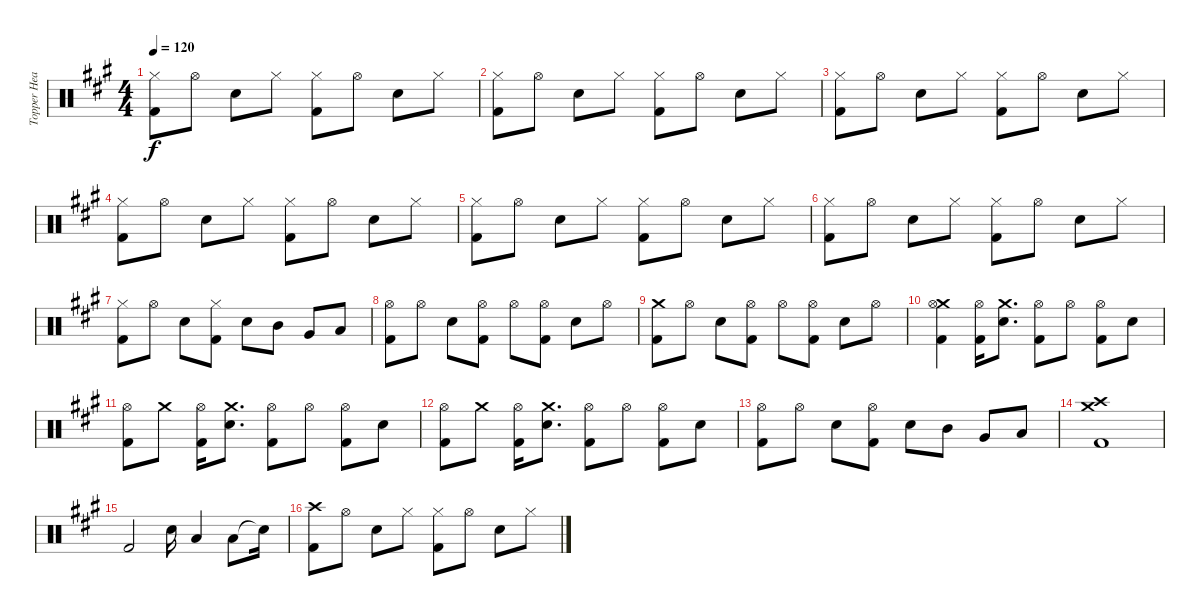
\track ("Topper Headon - Drums" "Topper Hea") {instrument percussion}
\staff {score}
\articulation defaults
\ts (4 4)
\tempo 120
\clef neutral
\ks a
("Hi-Hat (closed)" "Kick (hit) 2").8{dy f} "Hi-Hat (open)".8 "Electric Snare (hit)".8 "Hi-Hat (closed)".8 ("Hi-Hat (closed)" "Kick (hit) 2").8 "Hi-Hat (open)".8 "Electric Snare (hit)".8 "Hi-Hat (closed)".8 |
("Hi-Hat (closed)" "Kick (hit) 2").8 "Hi-Hat (open)".8 "Electric Snare (hit)".8 "Hi-Hat (closed)".8 ("Hi-Hat (closed)" "Kick (hit) 2").8 "Hi-Hat (open)".8 "Electric Snare (hit)".8 "Hi-Hat (closed)".8 |
("Hi-Hat (closed)" "Kick (hit) 2").8 "Hi-Hat (open)".8 "Electric Snare (hit)".8 "Hi-Hat (closed)".8 ("Hi-Hat (closed)" "Kick (hit) 2").8 "Hi-Hat (open)".8 "Electric Snare (hit)".8 "Hi-Hat (closed)".8 |
("Hi-Hat (closed)" "Kick (hit) 2").8 "Hi-Hat (open)".8 "Electric Snare (hit)".8 "Hi-Hat (closed)".8 ("Hi-Hat (closed)" "Kick (hit) 2").8 "Hi-Hat (open)".8 "Electric Snare (hit)".8 "Hi-Hat (closed)".8 |
("Hi-Hat (closed)" "Kick (hit) 2").8 "Hi-Hat (open)".8 "Electric Snare (hit)".8 "Hi-Hat (closed)".8 ("Hi-Hat (closed)" "Kick (hit) 2").8 "Hi-Hat (open)".8 "Electric Snare (hit)".8 "Hi-Hat (closed)".8 |
("Hi-Hat (closed)" "Kick (hit) 2").8 "Hi-Hat (open)".8 "Electric Snare (hit)".8 "Hi-Hat (closed)".8 ("Hi-Hat (closed)" "Kick (hit) 2").8 "Hi-Hat (open)".8 "Electric Snare (hit)".8 "Hi-Hat (closed)".8 |
("Hi-Hat (closed)" "Kick (hit) 2").8 "Hi-Hat (open)".8 "Electric Snare (hit)".8 ("Hi-Hat (closed)" "Kick (hit) 2").8 "Electric Snare (hit)".8 "Mid Tom (hit)".8 "Very Low Tom (hit)".8 "Low Floor Tom (hit)".8 |
("Hi-Hat (open)" "Kick (hit) 2").8 "Hi-Hat (open)".8 "Electric Snare (hit)".8 ("Hi-Hat (open)" "Kick (hit) 2").8 "Hi-Hat (open)".8 ("Hi-Hat (open)" "Kick (hit) 2").8 "Electric Snare (hit)".8 "Hi-Hat (open)".8 |
("Crash medium (hit)" "Kick (hit) 2").8 "Hi-Hat (open)".8 "Electric Snare (hit)".8 ("Hi-Hat (open)" "Kick (hit) 2").8 "Hi-Hat (open)".8 ("Hi-Hat (open)" "Kick (hit) 2").8 "Electric Snare (hit)".8 "Hi-Hat (open)".8 |
("Crash medium (hit)" "Hi-Hat (open)" "Kick (hit) 2").4 ("Hi-Hat (open)" "Kick (hit) 2").16 ("Crash medium (hit)" "Electric Snare (hit)").8{d} ("Hi-Hat (open)" "Kick (hit) 2").8 "Hi-Hat (open)".8 ("Hi-Hat (open)" "Kick (hit) 2").8 "Electric Snare (hit)".8 |
("Hi-Hat (open)" "Kick (hit) 2").8 "Crash medium (hit)".8 ("Hi-Hat (open)" "Kick (hit) 2").16 ("Crash medium (hit)" "Electric Snare (hit)").8{d} ("Hi-Hat (open)" "Kick (hit) 2").8 "Hi-Hat (open)".8 ("Hi-Hat (open)" "Kick (hit) 2").8 "Electric Snare (hit)".8 |
("Hi-Hat (open)" "Kick (hit) 2").8 "Crash medium (hit)".8 ("Hi-Hat (open)" "Kick (hit) 2").16 ("Crash medium (hit)" "Electric Snare (hit)").8{d} ("Hi-Hat (open)" "Kick (hit) 2").8 "Hi-Hat (open)".8 ("Hi-Hat (open)" "Kick (hit) 2").8 "Electric Snare (hit)".8 |
("Hi-Hat (open)" "Kick (hit) 2").8 "Hi-Hat (open)".8 "Electric Snare (hit)".8 ("Hi-Hat (open)" "Kick (hit) 2").8 "Electric Snare (hit)".8 "Mid Tom (hit)".8 "Very Low Tom (hit)".8 "Low Floor Tom (hit)".8 |
("Crash medium (hit)" "Crash high (hit)" "Kick (hit) 2").1 |
"Kick (hit) 2".2 "Electric Snare (hit)".16 "Low Tom (hit)".4 "Low Floor Tom (hit)".8 "Snare (hit)"{t}.16 |
("Crash high (hit)" "Kick (hit) 2").8 "Hi-Hat (open)".8 "Electric Snare (hit)".8 "Hi-Hat (closed)".8 ("Hi-Hat (closed)" "Kick (hit) 2").8 "Hi-Hat (open)".8 "Electric Snare (hit)".8 "Hi-Hat (closed)".8
